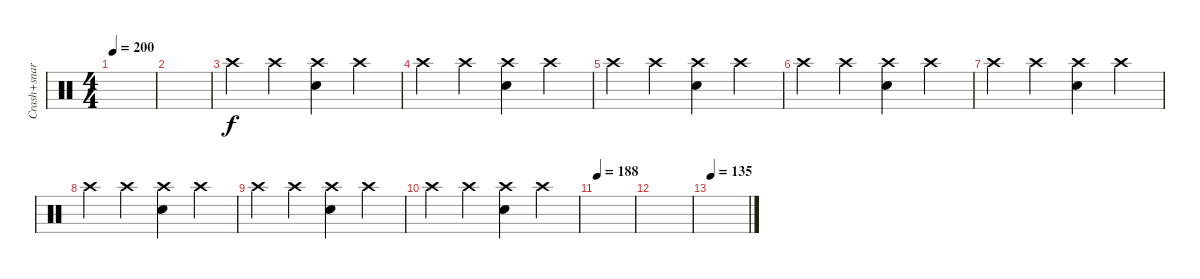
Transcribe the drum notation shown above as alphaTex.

\track ("Crash+snare, bars 27 - 34" "Crash+snar") {instrument percussion}
\staff {score}
\articulation defaults
\ts (4 4)
\tempo 200
\clef neutral
\ks c
|
|
"Crash high (hit)".4 "Crash high (hit)".4 ("Electric Snare (hit)" "Crash high (hit)").4 "Crash high (hit)".4 |
"Crash high (hit)".4 "Crash high (hit)".4 ("Electric Snare (hit)" "Crash high (hit)").4 "Crash high (hit)".4 |
"Crash high (hit)".4 "Crash high (hit)".4 ("Electric Snare (hit)" "Crash high (hit)").4 "Crash high (hit)".4 |
"Crash high (hit)".4 "Crash high (hit)".4 ("Electric Snare (hit)" "Crash high (hit)").4 "Crash high (hit)".4 |
"Crash high (hit)".4 "Crash high (hit)".4 ("Electric Snare (hit)" "Crash high (hit)").4 "Crash high (hit)".4 |
"Crash high (hit)".4 "Crash high (hit)".4 ("Electric Snare (hit)" "Crash high (hit)").4 "Crash high (hit)".4 |
"Crash high (hit)".4 "Crash high (hit)".4 ("Electric Snare (hit)" "Crash high (hit)").4 "Crash high (hit)".4 |
"Crash high (hit)".4 "Crash high (hit)".4 ("Electric Snare (hit)" "Crash high (hit)").4 "Crash high (hit)".4 |
\tempo 188
|
|
\tempo 135
